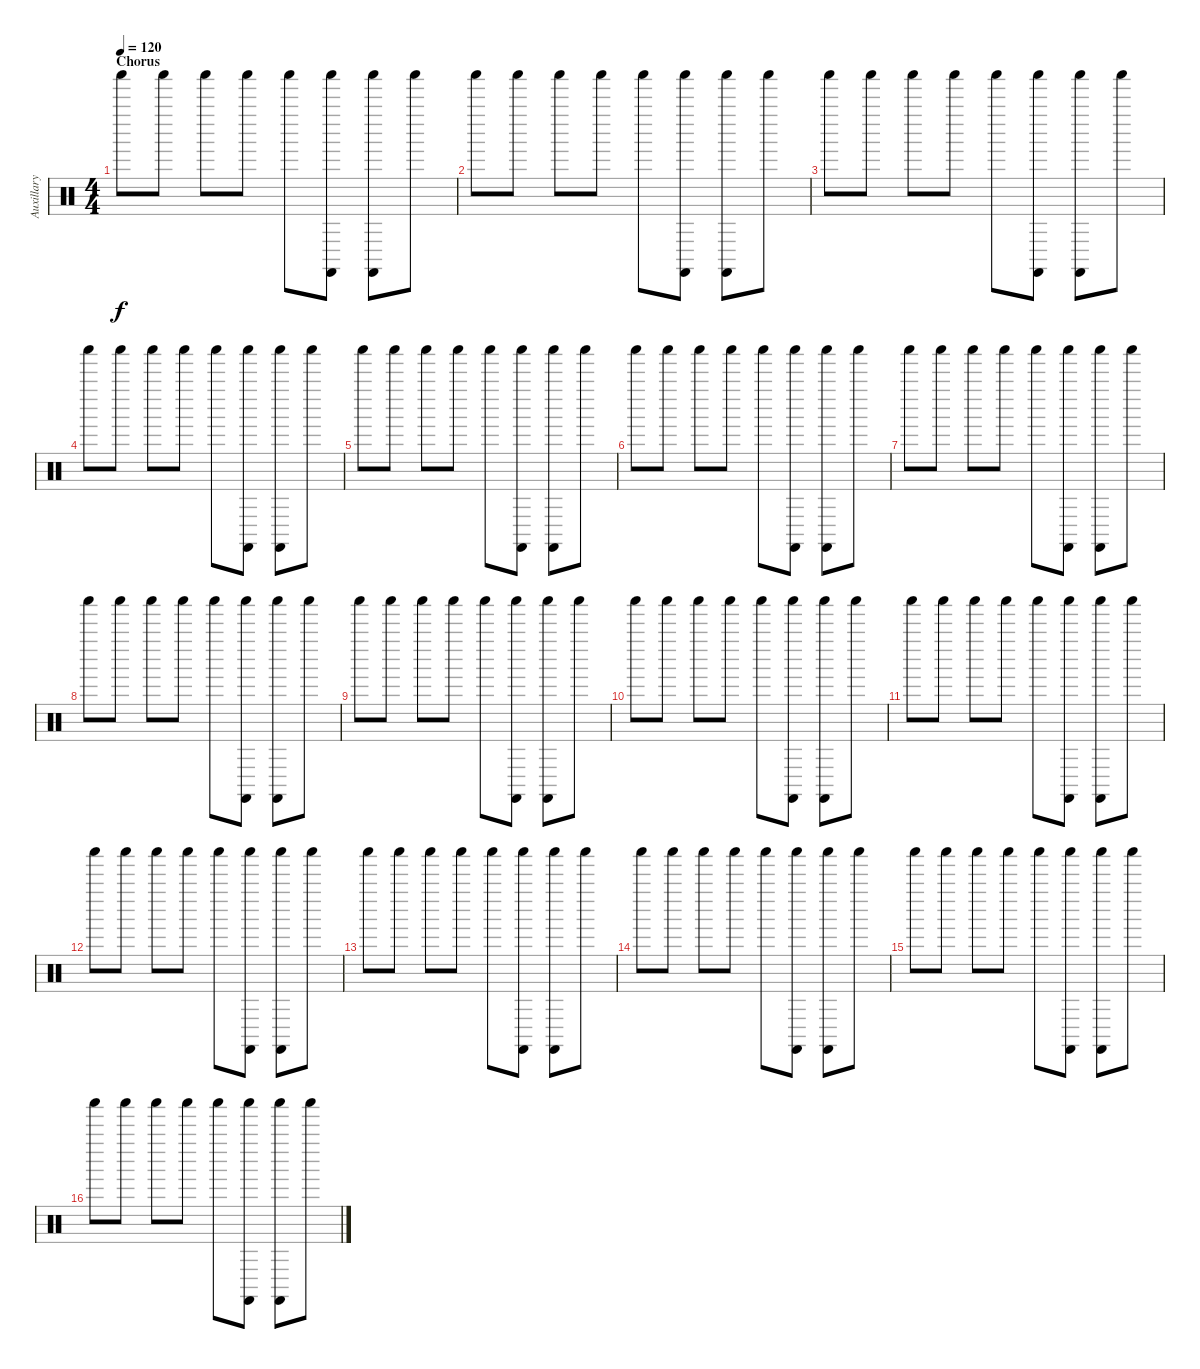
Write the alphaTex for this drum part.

\track ("Auxillary" "Auxillary") {instrument percussion}
\staff {score}
\articulation defaults
\ts (4 4)
\section ("" "Chorus")
\tempo 120
\clef neutral
\ks c "Shaker (hit)".8{dy f} "Shaker (hit)".8 "Shaker (hit)".8 "Shaker (hit)".8 "Shaker (hit)".8
("Shaker (hit)" "Castanets (hit)").8 ("Shaker (hit)" "Castanets (hit)").8 "Shaker (hit)".8 |
"Shaker (hit)".8 "Shaker (hit)".8 "Shaker (hit)".8 "Shaker (hit)".8 "Shaker (hit)".8 ("Shaker (hit)" "Castanets (hit)").8 ("Shaker (hit)" "Castanets (hit)").8 "Shaker (hit)".8 |
"Shaker (hit)".8 "Shaker (hit)".8 "Shaker (hit)".8 "Shaker (hit)".8 "Shaker (hit)".8 ("Shaker (hit)" "Castanets (hit)").8 ("Shaker (hit)" "Castanets (hit)").8 "Shaker (hit)".8 |
"Shaker (hit)".8 "Shaker (hit)".8 "Shaker (hit)".8 "Shaker (hit)".8 "Shaker (hit)".8 ("Shaker (hit)" "Castanets (hit)").8 ("Shaker (hit)" "Castanets (hit)").8 "Shaker (hit)".8 |
"Shaker (hit)".8 "Shaker (hit)".8 "Shaker (hit)".8 "Shaker (hit)".8 "Shaker (hit)".8 ("Shaker (hit)" "Castanets (hit)").8 ("Shaker (hit)" "Castanets (hit)").8 "Shaker (hit)".8 |
"Shaker (hit)".8 "Shaker (hit)".8 "Shaker (hit)".8 "Shaker (hit)".8 "Shaker (hit)".8 ("Shaker (hit)" "Castanets (hit)").8 ("Shaker (hit)" "Castanets (hit)").8 "Shaker (hit)".8 |
"Shaker (hit)".8 "Shaker (hit)".8 "Shaker (hit)".8 "Shaker (hit)".8 "Shaker (hit)".8 ("Shaker (hit)" "Castanets (hit)").8 ("Shaker (hit)" "Castanets (hit)").8 "Shaker (hit)".8 |
"Shaker (hit)".8 "Shaker (hit)".8 "Shaker (hit)".8 "Shaker (hit)".8 "Shaker (hit)".8 ("Shaker (hit)" "Castanets (hit)").8 ("Shaker (hit)" "Castanets (hit)").8 "Shaker (hit)".8 |
"Shaker (hit)".8 "Shaker (hit)".8 "Shaker (hit)".8 "Shaker (hit)".8 "Shaker (hit)".8 ("Shaker (hit)" "Castanets (hit)").8 ("Shaker (hit)" "Castanets (hit)").8 "Shaker (hit)".8 |
"Shaker (hit)".8 "Shaker (hit)".8 "Shaker (hit)".8 "Shaker (hit)".8 "Shaker (hit)".8 ("Shaker (hit)" "Castanets (hit)").8 ("Shaker (hit)" "Castanets (hit)").8 "Shaker (hit)".8 |
"Shaker (hit)".8 "Shaker (hit)".8 "Shaker (hit)".8 "Shaker (hit)".8 "Shaker (hit)".8 ("Shaker (hit)" "Castanets (hit)").8 ("Shaker (hit)" "Castanets (hit)").8 "Shaker (hit)".8 |
"Shaker (hit)".8 "Shaker (hit)".8 "Shaker (hit)".8 "Shaker (hit)".8 "Shaker (hit)".8 ("Shaker (hit)" "Castanets (hit)").8 ("Shaker (hit)" "Castanets (hit)").8 "Shaker (hit)".8 |
"Shaker (hit)".8 "Shaker (hit)".8 "Shaker (hit)".8 "Shaker (hit)".8 "Shaker (hit)".8 ("Shaker (hit)" "Castanets (hit)").8 ("Shaker (hit)" "Castanets (hit)").8 "Shaker (hit)".8 |
"Shaker (hit)".8 "Shaker (hit)".8 "Shaker (hit)".8 "Shaker (hit)".8 "Shaker (hit)".8 ("Shaker (hit)" "Castanets (hit)").8 ("Shaker (hit)" "Castanets (hit)").8 "Shaker (hit)".8 |
"Shaker (hit)".8 "Shaker (hit)".8 "Shaker (hit)".8 "Shaker (hit)".8 "Shaker (hit)".8 ("Shaker (hit)" "Castanets (hit)").8 ("Shaker (hit)" "Castanets (hit)").8 "Shaker (hit)".8 |
"Shaker (hit)".8 "Shaker (hit)".8 "Shaker (hit)".8 "Shaker (hit)".8 "Shaker (hit)".8 ("Shaker (hit)" "Castanets (hit)").8 ("Shaker (hit)" "Castanets (hit)").8 "Shaker (hit)".8
